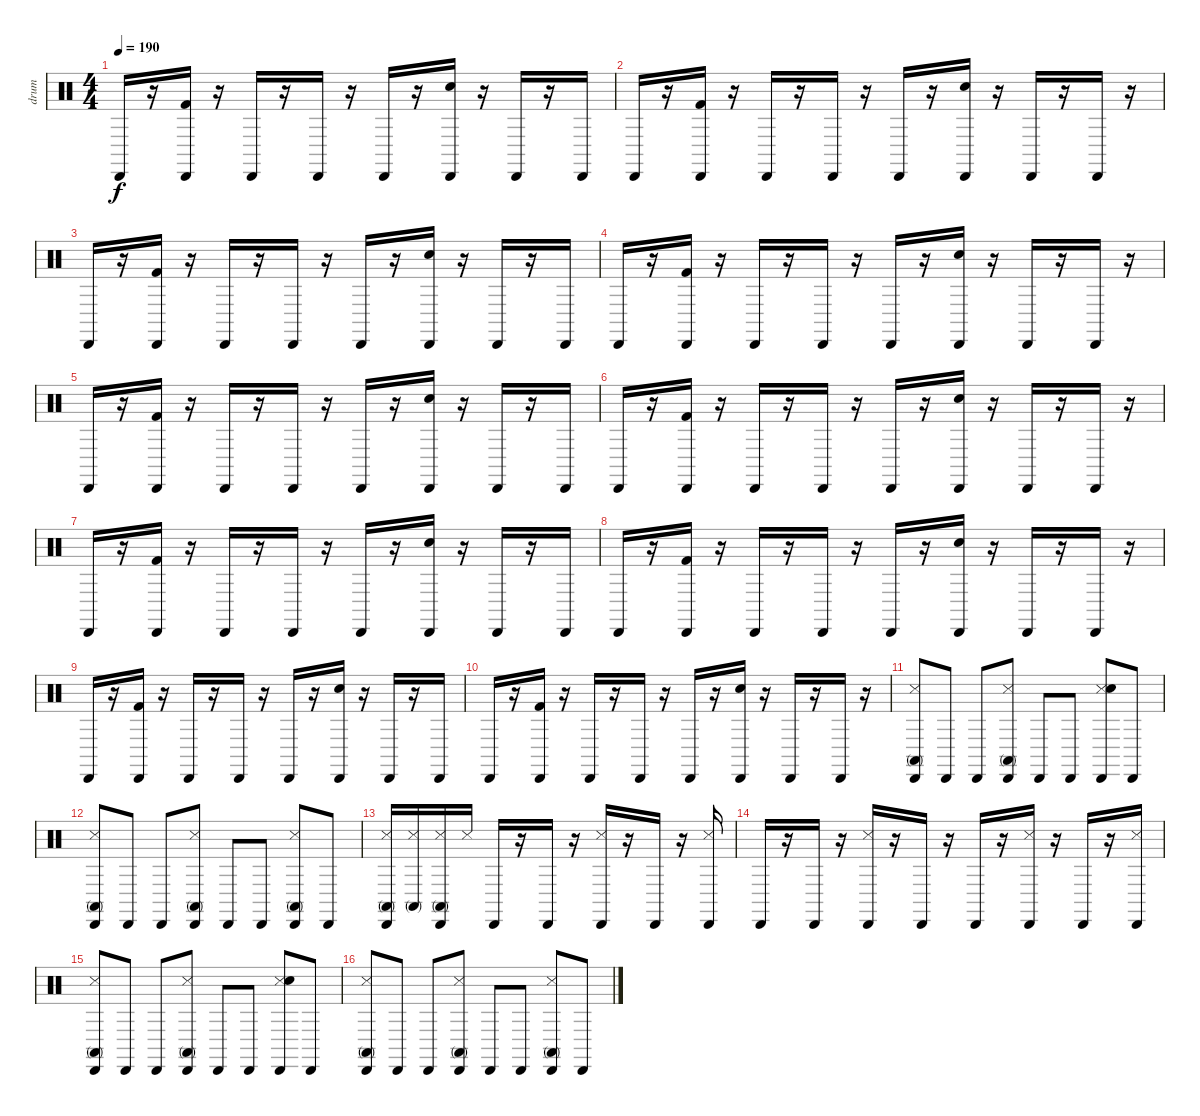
\track ("drum" "drum") {instrument percussion}
\staff {score}
\articulation defaults
\ts (4 4)
\tempo 190
\clef neutral
\ks c "Cabasa (hit)".16{dy f}
r.16 ("Cabasa (hit)" "Kick (hit) 2").16 r.16 "Cabasa (hit)".16 r.16 "Cabasa (hit)".16 r.16 "Cabasa (hit)".16 r.16 ("Cabasa (hit)" "Snare (hit) 2").16 r.16 "Cabasa (hit)".16 r.16 "Cabasa (hit)".16 |
"Cabasa (hit)".16 r.16 ("Cabasa (hit)" "Kick (hit) 2").16 r.16 "Cabasa (hit)".16 r.16 "Cabasa (hit)".16 r.16 "Cabasa (hit)".16 r.16 ("Cabasa (hit)" "Snare (hit) 2").16 r.16 "Cabasa (hit)".16 r.16 "Cabasa (hit)".16 r.16 |
"Cabasa (hit)".16 r.16 ("Cabasa (hit)" "Kick (hit) 2").16 r.16 "Cabasa (hit)".16 r.16 "Cabasa (hit)".16 r.16 "Cabasa (hit)".16 r.16 ("Cabasa (hit)" "Snare (hit) 2").16 r.16 "Cabasa (hit)".16 r.16 "Cabasa (hit)".16 |
"Cabasa (hit)".16 r.16 ("Cabasa (hit)" "Kick (hit) 2").16 r.16 "Cabasa (hit)".16 r.16 "Cabasa (hit)".16 r.16 "Cabasa (hit)".16 r.16 ("Cabasa (hit)" "Snare (hit) 2").16 r.16 "Cabasa (hit)".16 r.16 "Cabasa (hit)".16 r.16 |
"Cabasa (hit)".16 r.16 ("Cabasa (hit)" "Kick (hit) 2").16 r.16 "Cabasa (hit)".16 r.16 "Cabasa (hit)".16 r.16 "Cabasa (hit)".16 r.16 ("Cabasa (hit)" "Snare (hit) 2").16 r.16 "Cabasa (hit)".16 r.16 "Cabasa (hit)".16 |
"Cabasa (hit)".16 r.16 ("Cabasa (hit)" "Kick (hit) 2").16 r.16 "Cabasa (hit)".16 r.16 "Cabasa (hit)".16 r.16 "Cabasa (hit)".16 r.16 ("Cabasa (hit)" "Snare (hit) 2").16 r.16 "Cabasa (hit)".16 r.16 "Cabasa (hit)".16 r.16 |
"Cabasa (hit)".16 r.16 ("Cabasa (hit)" "Kick (hit) 2").16 r.16 "Cabasa (hit)".16 r.16 "Cabasa (hit)".16 r.16 "Cabasa (hit)".16 r.16 ("Cabasa (hit)" "Snare (hit) 2").16 r.16 "Cabasa (hit)".16 r.16 "Cabasa (hit)".16 |
"Cabasa (hit)".16 r.16 ("Cabasa (hit)" "Kick (hit) 2").16 r.16 "Cabasa (hit)".16 r.16 "Cabasa (hit)".16 r.16 "Cabasa (hit)".16 r.16 ("Cabasa (hit)" "Snare (hit) 2").16 r.16 "Cabasa (hit)".16 r.16 "Cabasa (hit)".16 r.16 |
"Cabasa (hit)".16 r.16 ("Cabasa (hit)" "Kick (hit) 2").16 r.16 "Cabasa (hit)".16 r.16 "Cabasa (hit)".16 r.16 "Cabasa (hit)".16 r.16 ("Cabasa (hit)" "Snare (hit) 2").16 r.16 "Cabasa (hit)".16 r.16 "Cabasa (hit)".16 |
"Cabasa (hit)".16 r.16 ("Cabasa (hit)" "Kick (hit) 2").16 r.16 "Cabasa (hit)".16 r.16 "Cabasa (hit)".16 r.16 "Cabasa (hit)".16 r.16 ("Cabasa (hit)" "Snare (hit) 2").16 r.16 "Cabasa (hit)".16 r.16 "Cabasa (hit)".16 r.16 |
("Cabasa (hit)" "Conga high (mute)" "Snare (side stick) 3").8 "Cabasa (hit)".8 "Cabasa (hit)".8 ("Cabasa (hit)" "Snare (side stick) 3" "Conga high (mute)").8 "Cabasa (hit)".8 "Cabasa (hit)".8 ("Cabasa (hit)" "Snare (side stick) 3" "Snare (hit)").8 "Cabasa (hit)".8 |
("Cabasa (hit)" "Snare (side stick) 3" "Conga high (mute)").8 "Cabasa (hit)".8 "Cabasa (hit)".8 ("Cabasa (hit)" "Conga high (mute)" "Snare (side stick) 3").8 "Cabasa (hit)".8 "Cabasa (hit)".8 ("Cabasa (hit)" "Conga high (mute)" "Snare (side stick) 3").8 "Cabasa (hit)".8 |
("Cabasa (hit)" "Conga high (mute)" "Snare (side stick) 3").16 ("Conga high (mute)" "Snare (side stick) 3").16 ("Cabasa (hit)" "Conga high (mute)" "Snare (side stick) 3").16 "Snare (side stick) 3".16 "Cabasa (hit)".16 r.16 "Cabasa (hit)".16 r.16 ("Cabasa (hit)" "Snare (side stick) 3").16 r.16 "Cabasa (hit)".16 r.16 ("Cabasa (hit)" "Snare (side stick) 3").16 |
"Cabasa (hit)".16 r.16 "Cabasa (hit)".16 r.16 ("Cabasa (hit)" "Snare (side stick) 3").16 r.16 "Cabasa (hit)".16 r.16 "Cabasa (hit)".16 r.16 ("Cabasa (hit)" "Snare (side stick) 3").16 r.16 "Cabasa (hit)".16 r.16 ("Cabasa (hit)" "Snare (side stick) 3").16 |
("Cabasa (hit)" "Conga high (mute)" "Snare (side stick) 3").8 "Cabasa (hit)".8 "Cabasa (hit)".8 ("Cabasa (hit)" "Snare (side stick) 3" "Conga high (mute)").8 "Cabasa (hit)".8 "Cabasa (hit)".8 ("Cabasa (hit)" "Snare (side stick) 3" "Snare (hit)").8 "Cabasa (hit)".8 |
("Cabasa (hit)" "Snare (side stick) 3" "Conga high (mute)").8 "Cabasa (hit)".8 "Cabasa (hit)".8 ("Cabasa (hit)" "Conga high (mute)" "Snare (side stick) 3").8 "Cabasa (hit)".8 "Cabasa (hit)".8 ("Cabasa (hit)" "Conga high (mute)" "Snare (side stick) 3").8 "Cabasa (hit)".8
